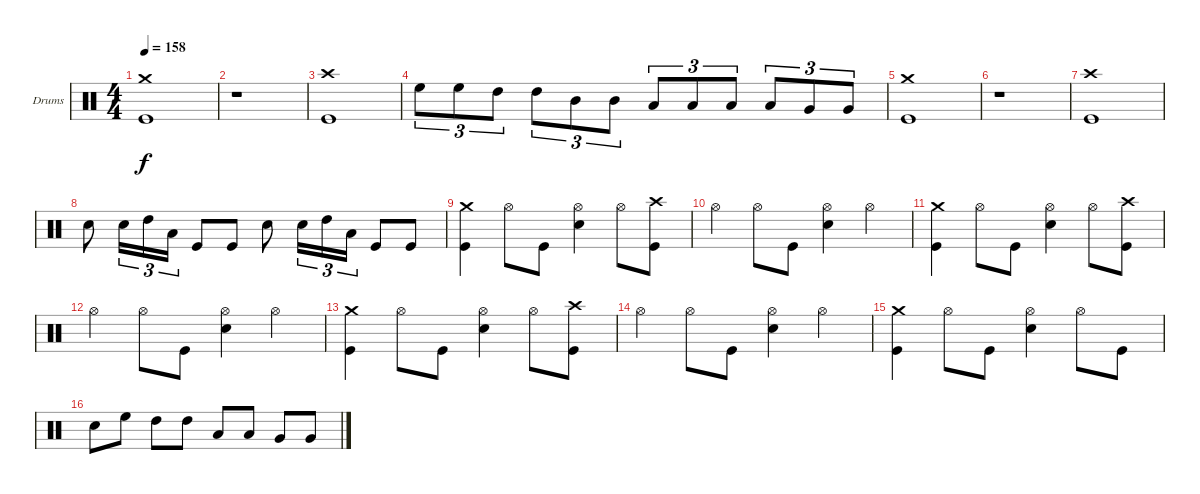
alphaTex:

\bracketExtendMode groupsimilarinstruments
\firstSystemTrackNameOrientation horizontal
\otherSystemsTrackNameOrientation horizontal
\track ("Drumkit" "Drums") {instrument percussion}
\staff {score}
\articulation defaults
\ts (4 4)
\tempo 158
\clef neutral
\ks c
("Crash medium (hit)" "Kick (hit)").1{dy f} |
r.1 |
("Crash high (hit)" "Kick (hit)").1 |
"High Floor Tom (hit)".8{tu (3 2)} "High Floor Tom (hit)".8{tu (3 2)} "High Tom (hit)".8{tu (3 2)} "High Tom (hit)".8{tu (3 2)} "Mid Tom (hit)".8{tu (3 2)} "Mid Tom (hit)".8{tu (3 2)} "Low Tom (hit)".8{tu (3 2)} "Low Tom (hit)".8{tu (3 2)} "Low Tom (hit)".8{tu (3 2)} "Low Tom (hit)".8{tu (3 2)} "Very Low Tom (hit)".8{tu (3 2)} "Very Low Tom (hit)".8{tu (3 2)} |
("Crash medium (hit)" "Kick (hit)").1 |
r.1 |
("Crash high (hit)" "Kick (hit)").1 |
"Snare (hit) 2".8 "Snare (hit) 2".16{tu (3 2)} "High Tom (hit)".16{tu (3 2)} "Low Tom (hit)".16{tu (3 2)} "Kick (hit)".8 "Kick (hit)".8 "Snare (hit) 2".8 "Snare (hit) 2".16{tu (3 2)} "High Tom (hit)".16{tu (3 2)} "Low Tom (hit)".16{tu (3 2)} "Kick (hit)".8 "Kick (hit)".8 |
("Crash medium (hit)" "Kick (hit)").4 "Hi-Hat (open)".8 "Kick (hit)".8 ("Hi-Hat (open)" "Snare (hit) 2").4 "Hi-Hat (open)".8 ("Crash high (hit)" "Kick (hit)").8 |
"Hi-Hat (open)".4 "Hi-Hat (open)".8 "Kick (hit)".8 ("Hi-Hat (open)" "Snare (hit) 2").4 "Hi-Hat (open)".4 |
("Crash medium (hit)" "Kick (hit)").4 "Hi-Hat (open)".8 "Kick (hit)".8 ("Hi-Hat (open)" "Snare (hit) 2").4 "Hi-Hat (open)".8 ("Crash high (hit)" "Kick (hit)").8 |
"Hi-Hat (open)".4 "Hi-Hat (open)".8 "Kick (hit)".8 ("Hi-Hat (open)" "Snare (hit) 2").4 "Hi-Hat (open)".4 |
("Crash medium (hit)" "Kick (hit)").4 "Hi-Hat (open)".8 "Kick (hit)".8 ("Hi-Hat (open)" "Snare (hit) 2").4 "Hi-Hat (open)".8 ("Crash high (hit)" "Kick (hit)").8 |
"Hi-Hat (open)".4 "Hi-Hat (open)".8 "Kick (hit)".8 ("Hi-Hat (open)" "Snare (hit) 2").4 "Hi-Hat (open)".4 |
("Crash medium (hit)" "Kick (hit)").4 "Hi-Hat (open)".8 "Kick (hit)".8 ("Hi-Hat (open)" "Snare (hit) 2").4 "Hi-Hat (open)".8 "Kick (hit)".8 |
"Snare (hit) 2".8 "High Floor Tom (hit)".8 "High Tom (hit)".8 "High Tom (hit)".8 "Low Tom (hit)".8 "Low Tom (hit)".8 "Very Low Tom (hit)".8 "Very Low Tom (hit)".8
